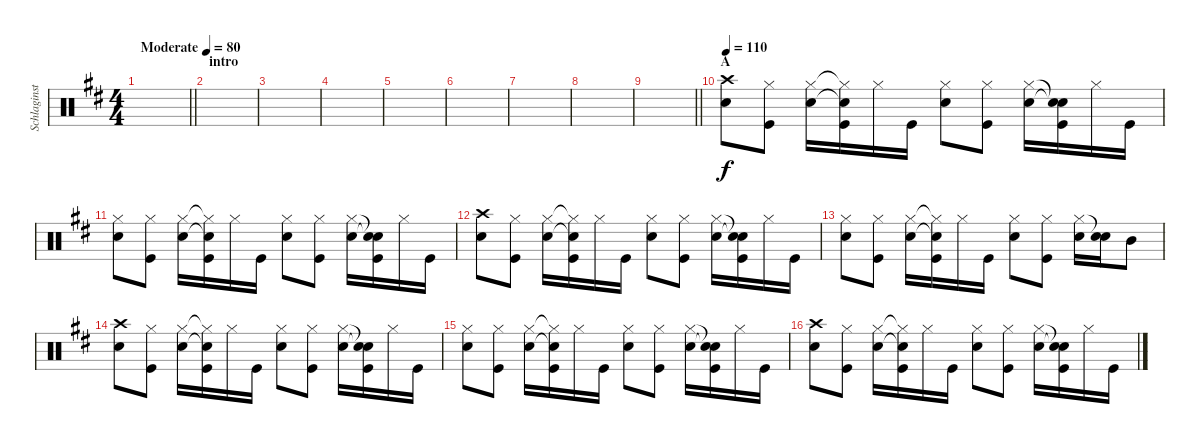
\track ("Schlaginstrumente - Auswahl" "Schlaginst") {instrument percussion}
\staff {score}
\articulation defaults
\ts (4 4)
\tempo (80 "Moderate")
\clef neutral
\barLineRight lightlight
\ks d
|
\section ("" "intro")
|
|
|
|
|
|
|
\barLineRight lightlight
|
\section ("" "A")
\tempo 110
("Crash high (hit)" "Snare (hit) 2").8 ("Hi-Hat (closed)" "Kick (hit)").8 ("Hi-Hat (closed)" "Snare (hit) 2").16 ("Hi-Hat (closed)"{t} "Snare (hit)"{t} "Kick (hit)").16 "Hi-Hat (closed)".16 "Kick (hit)".16 ("Hi-Hat (closed)" "Snare (hit) 2").8 ("Hi-Hat (closed)" "Kick (hit)").8 ("Hi-Hat (closed)" "Snare (hit) 2").16 ("Snare (hit)"{t} "Snare (hit)"{t} "Kick (hit)").16 "Hi-Hat (closed)".16 "Kick (hit)".16 |
("Hi-Hat (closed)" "Snare (hit) 2").8 ("Hi-Hat (closed)" "Kick (hit)").8 ("Hi-Hat (closed)" "Snare (hit) 2").16 ("Hi-Hat (closed)"{t} "Snare (hit)"{t} "Kick (hit)").16 "Hi-Hat (closed)".16 "Kick (hit)".16 ("Hi-Hat (closed)" "Snare (hit) 2").8 ("Hi-Hat (closed)" "Kick (hit)").8 ("Hi-Hat (closed)" "Snare (hit) 2").16 ("Snare (hit)"{t} "Snare (hit)"{t} "Kick (hit)").16 "Hi-Hat (closed)".16 "Kick (hit)".16 |
("Crash high (hit)" "Snare (hit) 2").8 ("Hi-Hat (closed)" "Kick (hit)").8 ("Hi-Hat (closed)" "Snare (hit) 2").16 ("Hi-Hat (closed)"{t} "Snare (hit)"{t} "Kick (hit)").16 "Hi-Hat (closed)".16 "Kick (hit)".16 ("Hi-Hat (closed)" "Snare (hit) 2").8 ("Hi-Hat (closed)" "Kick (hit)").8 ("Hi-Hat (closed)" "Snare (hit) 2").16 ("Snare (hit)"{t} "Snare (hit)"{t} "Kick (hit)").16 "Hi-Hat (closed)".16 "Kick (hit)".16 |
("Hi-Hat (closed)" "Snare (hit) 2").8 ("Hi-Hat (closed)" "Kick (hit)").8 ("Hi-Hat (closed)" "Snare (hit) 2").16 ("Hi-Hat (closed)"{t} "Snare (hit)"{t} "Kick (hit)").16 "Hi-Hat (closed)".16 "Kick (hit)".16 ("Hi-Hat (closed)" "Snare (hit) 2").8 ("Hi-Hat (closed)" "Kick (hit)").8 ("Hi-Hat (closed)" "Snare (hit) 2").16 ("Snare (hit)"{t} "Snare (hit) 2").16 "Mid Tom (hit)".8 |
("Crash high (hit)" "Snare (hit) 2").8 ("Hi-Hat (closed)" "Kick (hit)").8 ("Hi-Hat (closed)" "Snare (hit) 2").16 ("Hi-Hat (closed)"{t} "Snare (hit)"{t} "Kick (hit)").16 "Hi-Hat (closed)".16 "Kick (hit)".16 ("Hi-Hat (closed)" "Snare (hit) 2").8 ("Hi-Hat (closed)" "Kick (hit)").8 ("Hi-Hat (closed)" "Snare (hit) 2").16 ("Snare (hit)"{t} "Snare (hit)"{t} "Kick (hit)").16 "Hi-Hat (closed)".16 "Kick (hit)".16 |
("Hi-Hat (closed)" "Snare (hit) 2").8 ("Hi-Hat (closed)" "Kick (hit)").8 ("Hi-Hat (closed)" "Snare (hit) 2").16 ("Hi-Hat (closed)"{t} "Snare (hit)"{t} "Kick (hit)").16 "Hi-Hat (closed)".16 "Kick (hit)".16 ("Hi-Hat (closed)" "Snare (hit) 2").8 ("Hi-Hat (closed)" "Kick (hit)").8 ("Hi-Hat (closed)" "Snare (hit) 2").16 ("Snare (hit)"{t} "Snare (hit)"{t} "Kick (hit)").16 "Hi-Hat (closed)".16 "Kick (hit)".16 |
("Crash high (hit)" "Snare (hit) 2").8 ("Hi-Hat (closed)" "Kick (hit)").8 ("Hi-Hat (closed)" "Snare (hit) 2").16 ("Hi-Hat (closed)"{t} "Snare (hit)"{t} "Kick (hit)").16 "Hi-Hat (closed)".16 "Kick (hit)".16 ("Hi-Hat (closed)" "Snare (hit) 2").8 ("Hi-Hat (closed)" "Kick (hit)").8 ("Hi-Hat (closed)" "Snare (hit) 2").16 ("Snare (hit)"{t} "Snare (hit)"{t} "Kick (hit)").16 "Hi-Hat (closed)".16 "Kick (hit)".16
